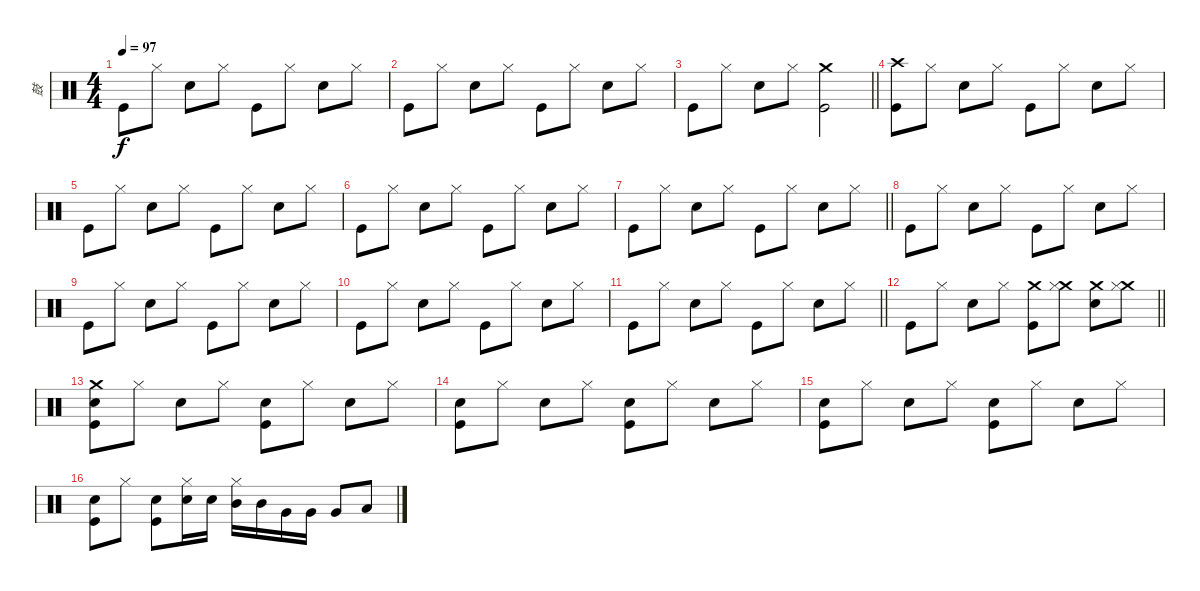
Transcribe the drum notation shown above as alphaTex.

\track ("鼓" "鼓") {instrument percussion}
\staff {score}
\articulation defaults
\ts (4 4)
\tempo 97
\clef neutral
\ks c "Kick (hit)".8{dy f} "Hi-Hat (closed)".8 "Electric Snare (hit)".8 "Hi-Hat (closed)".8 "Kick (hit)".8 "Hi-Hat (closed)".8 "Electric Snare (hit)".8 "Hi-Hat (closed)".8
|
"Kick (hit)".8 "Hi-Hat (closed)".8 "Electric Snare (hit)".8 "Hi-Hat (closed)".8 "Kick (hit)".8 "Hi-Hat (closed)".8 "Electric Snare (hit)".8 "Hi-Hat (closed)".8 |
\barLineRight lightlight "Kick (hit)".8 "Hi-Hat (closed)".8 "Electric Snare (hit)".8 "Hi-Hat (closed)".8
("Crash medium (hit)" "Kick (hit)").2 |
("Crash high (hit)" "Kick (hit)").8 "Hi-Hat (closed)".8 "Electric Snare (hit)".8 "Hi-Hat (closed)".8 "Kick (hit)".8 "Hi-Hat (closed)".8 "Electric Snare (hit)".8 "Hi-Hat (closed)".8 |
"Kick (hit)".8 "Hi-Hat (closed)".8 "Electric Snare (hit)".8 "Hi-Hat (closed)".8 "Kick (hit)".8 "Hi-Hat (closed)".8 "Electric Snare (hit)".8 "Hi-Hat (closed)".8 |
"Kick (hit)".8 "Hi-Hat (closed)".8 "Electric Snare (hit)".8 "Hi-Hat (closed)".8 "Kick (hit)".8 "Hi-Hat (closed)".8 "Electric Snare (hit)".8 "Hi-Hat (closed)".8 |
\barLineRight lightlight "Kick (hit)".8 "Hi-Hat (closed)".8 "Electric Snare (hit)".8 "Hi-Hat (closed)".8 "Kick (hit)".8 "Hi-Hat (closed)".8 "Electric Snare (hit)".8 "Hi-Hat (closed)".8
|
"Kick (hit)".8 "Hi-Hat (closed)".8 "Electric Snare (hit)".8 "Hi-Hat (closed)".8 "Kick (hit)".8 "Hi-Hat (closed)".8 "Electric Snare (hit)".8 "Hi-Hat (closed)".8 |
"Kick (hit)".8 "Hi-Hat (closed)".8 "Electric Snare (hit)".8 "Hi-Hat (closed)".8 "Kick (hit)".8 "Hi-Hat (closed)".8 "Electric Snare (hit)".8 "Hi-Hat (closed)".8 |
"Kick (hit)".8 "Hi-Hat (closed)".8 "Electric Snare (hit)".8 "Hi-Hat (closed)".8 "Kick (hit)".8 "Hi-Hat (closed)".8 "Electric Snare (hit)".8 "Hi-Hat (closed)".8 |
\barLineRight lightlight "Kick (hit)".8 "Hi-Hat (closed)".8 "Electric Snare (hit)".8 "Hi-Hat (closed)".8 "Kick (hit)".8 "Hi-Hat (closed)".8 "Electric Snare (hit)".8 "Hi-Hat (closed)".8
|
\barLineRight lightlight "Kick (hit)".8 "Hi-Hat (closed)".8 "Electric Snare (hit)".8 "Hi-Hat (closed)".8
("Crash medium (hit)" "Kick (hit)").8 ("Crash medium (hit)" "Hi-Hat (closed)").8 ("Crash medium (hit)" "Electric Snare (hit)").8 ("Crash medium (hit)" "Hi-Hat (closed)").8 |
\section ("" "")
("Crash medium (hit)" "Electric Snare (hit)" "Kick (hit)").8{volume 16} "Hi-Hat (closed)".8 "Electric Snare (hit)".8{volume 16} "Hi-Hat (closed)".8 ("Electric Snare (hit)" "Kick (hit)").8{volume 16} "Hi-Hat (closed)".8 "Electric Snare (hit)".8{volume 16} "Hi-Hat (closed)".8 |
("Electric Snare (hit)" "Kick (hit)").8 "Hi-Hat (closed)".8 "Electric Snare (hit)".8 "Hi-Hat (closed)".8 ("Electric Snare (hit)" "Kick (hit)").8 "Hi-Hat (closed)".8 "Electric Snare (hit)".8 "Hi-Hat (closed)".8 |
("Electric Snare (hit)" "Kick (hit)").8 "Hi-Hat (closed)".8 "Electric Snare (hit)".8 "Hi-Hat (closed)".8 ("Electric Snare (hit)" "Kick (hit)").8 "Hi-Hat (closed)".8 "Electric Snare (hit)".8 "Hi-Hat (closed)".8 |
("Electric Snare (hit)" "Kick (hit)").8 "Hi-Hat (closed)".8 ("Electric Snare (hit)" "Kick (hit)").8 ("Hi-Hat (closed)" "Electric Snare (hit)").16 "Electric Snare (hit)".16 ("Mid Tom (hit)" "Hi-Hat (closed)").16 "Mid Tom (hit)".16 "Very Low Tom (hit)".16 "Very Low Tom (hit)".16 "Very Low Tom (hit)".8 "Low Floor Tom (hit)".8
